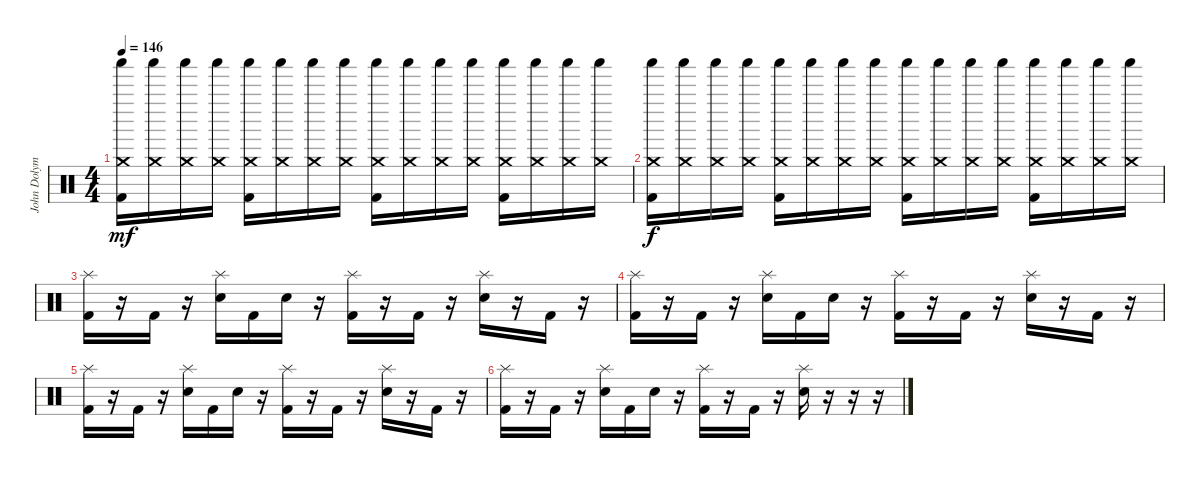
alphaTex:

\track ("John Dolyman" "John Dolym") {instrument percussion}
\staff {score}
\articulation defaults
\ts (4 4)
\tempo 146
\clef neutral
\ks c
("Crash medium (hit)" "Shaker (hit)" "Kick (hit) 2").16{dy mf} ("Crash medium (hit)" "Shaker (hit)").16 ("Crash medium (hit)" "Shaker (hit)").16 ("Crash medium (hit)" "Shaker (hit)").16 ("Crash medium (hit)" "Shaker (hit)" "Kick (hit) 2").16 ("Crash medium (hit)" "Shaker (hit)").16 ("Crash medium (hit)" "Shaker (hit)").16 ("Crash medium (hit)" "Shaker (hit)").16 ("Crash medium (hit)" "Shaker (hit)" "Kick (hit) 2").16 ("Crash medium (hit)" "Shaker (hit)").16 ("Crash medium (hit)" "Shaker (hit)").16 ("Crash medium (hit)" "Shaker (hit)").16 ("Crash medium (hit)" "Shaker (hit)" "Kick (hit) 2").16 ("Crash medium (hit)" "Shaker (hit)").16 ("Crash medium (hit)" "Shaker (hit)").16 ("Crash medium (hit)" "Shaker (hit)").16 |
("Crash medium (hit)" "Shaker (hit)" "Kick (hit) 2").16{dy f} ("Crash medium (hit)" "Shaker (hit)").16 ("Crash medium (hit)" "Shaker (hit)").16 ("Crash medium (hit)" "Shaker (hit)").16 ("Crash medium (hit)" "Shaker (hit)" "Kick (hit) 2").16 ("Crash medium (hit)" "Shaker (hit)").16 ("Crash medium (hit)" "Shaker (hit)").16 ("Crash medium (hit)" "Shaker (hit)").16 ("Crash medium (hit)" "Shaker (hit)" "Kick (hit) 2").16 ("Crash medium (hit)" "Shaker (hit)").16 ("Crash medium (hit)" "Shaker (hit)").16 ("Crash medium (hit)" "Shaker (hit)").16 ("Crash medium (hit)" "Shaker (hit)" "Kick (hit) 2").16 ("Crash medium (hit)" "Shaker (hit)").16 ("Crash medium (hit)" "Shaker (hit)").16 ("Crash medium (hit)" "Shaker (hit)").16 |
("Splash (hit)" "Kick (hit) 2").16 r.16 "Kick (hit) 2".16 r.16 ("Splash (hit)" "Electric Snare (hit)").16 "Kick (hit) 2".16 "Electric Snare (hit)".16 r.16 ("Splash (hit)" "Kick (hit) 2").16 r.16 "Kick (hit) 2".16 r.16 ("Splash (hit)" "Electric Snare (hit)").16 r.16 "Kick (hit) 2".16 r.16 |
("Splash (hit)" "Kick (hit) 2").16 r.16 "Kick (hit) 2".16 r.16 ("Splash (hit)" "Electric Snare (hit)").16 "Kick (hit) 2".16 "Electric Snare (hit)".16 r.16 ("Splash (hit)" "Kick (hit) 2").16 r.16 "Kick (hit) 2".16 r.16 ("Splash (hit)" "Electric Snare (hit)").16 r.16 "Kick (hit) 2".16 r.16 |
("Splash (hit)" "Kick (hit) 2").16 r.16 "Kick (hit) 2".16 r.16 ("Splash (hit)" "Electric Snare (hit)").16 "Kick (hit) 2".16 "Electric Snare (hit)".16 r.16 ("Splash (hit)" "Kick (hit) 2").16 r.16 "Kick (hit) 2".16 r.16 ("Splash (hit)" "Electric Snare (hit)").16 r.16 "Kick (hit) 2".16 r.16 |
("Splash (hit)" "Kick (hit) 2").16 r.16 "Kick (hit) 2".16 r.16 ("Splash (hit)" "Electric Snare (hit)").16 "Kick (hit) 2".16 "Electric Snare (hit)".16 r.16 ("Splash (hit)" "Kick (hit) 2").16 r.16 "Kick (hit) 2".16 r.16 ("Splash (hit)" "Electric Snare (hit)").16 r.16 r.16 r.16
